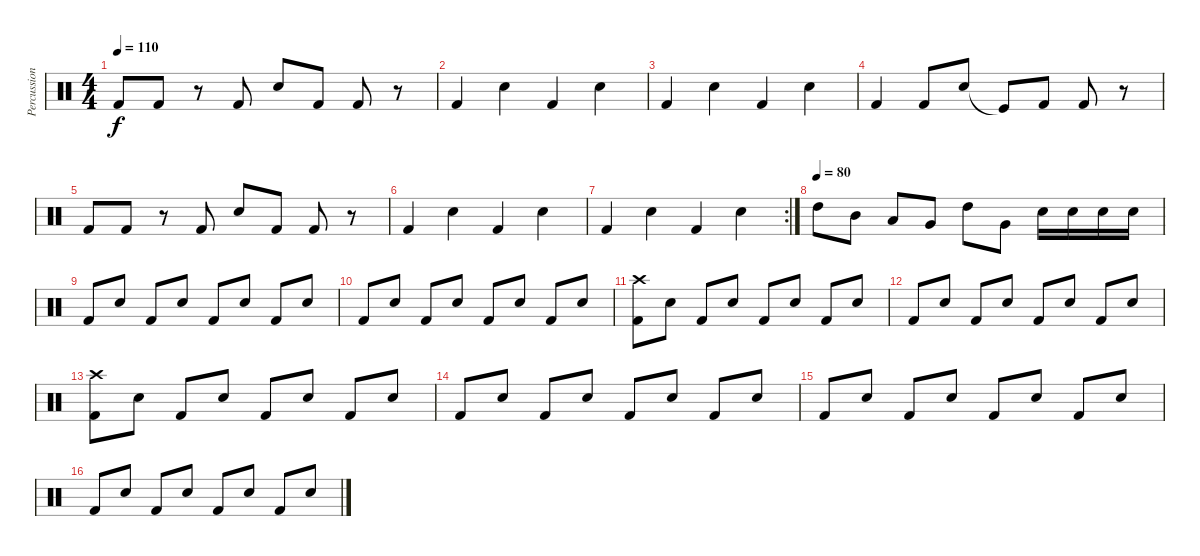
\track ("Percussion" "Percussion") {instrument percussion}
\staff {score}
\articulation defaults
\ts (4 4)
\tempo 110
\clef neutral
\ks c "Kick (hit) 2".8{dy f} "Kick (hit) 2".8
r.8 "Kick (hit) 2".8 "Electric Snare (hit)".8 "Kick (hit) 2".8 "Kick (hit) 2".8 r.8 |
"Kick (hit) 2".4 "Electric Snare (hit)".4 "Kick (hit) 2".4 "Electric Snare (hit)".4 |
"Kick (hit) 2".4 "Electric Snare (hit)".4 "Kick (hit) 2".4 "Electric Snare (hit)".4 |
"Kick (hit) 2".4 "Kick (hit) 2".8 "Electric Snare (hit)".8 "Kick (hit)"{t}.8 "Kick (hit) 2".8 "Kick (hit) 2".8 r.8 |
"Kick (hit) 2".8 "Kick (hit) 2".8 r.8 "Kick (hit) 2".8 "Electric Snare (hit)".8 "Kick (hit) 2".8 "Kick (hit) 2".8 r.8 |
"Kick (hit) 2".4 "Electric Snare (hit)".4 "Kick (hit) 2".4 "Electric Snare (hit)".4 |
\rc 2 "Kick (hit) 2".4 "Electric Snare (hit)".4 "Kick (hit) 2".4 "Electric Snare (hit)".4
|
\tempo (80)
"High Tom (hit)".8 "Mid Tom (hit)".8 "Low Tom (hit)".8 "Very Low Tom (hit)".8 "High Tom (hit)".8 "Very Low Tom (hit)".8 "Electric Snare (hit)".16 "Electric Snare (hit)".16 "Electric Snare (hit)".16 "Electric Snare (hit)".16 |
"Kick (hit) 2".8 "Electric Snare (hit)".8 "Kick (hit) 2".8 "Electric Snare (hit)".8 "Kick (hit) 2".8 "Electric Snare (hit)".8 "Kick (hit) 2".8 "Electric Snare (hit)".8 |
"Kick (hit) 2".8 "Electric Snare (hit)".8 "Kick (hit) 2".8 "Electric Snare (hit)".8 "Kick (hit) 2".8 "Electric Snare (hit)".8 "Kick (hit) 2".8 "Electric Snare (hit)".8 |
("Crash high (hit)" "Kick (hit) 2").8 "Electric Snare (hit)".8 "Kick (hit) 2".8 "Electric Snare (hit)".8 "Kick (hit) 2".8 "Electric Snare (hit)".8 "Kick (hit) 2".8 "Electric Snare (hit)".8 |
"Kick (hit) 2".8 "Electric Snare (hit)".8 "Kick (hit) 2".8 "Electric Snare (hit)".8 "Kick (hit) 2".8 "Electric Snare (hit)".8 "Kick (hit) 2".8 "Electric Snare (hit)".8 |
("Crash high (hit)" "Kick (hit) 2").8 "Electric Snare (hit)".8 "Kick (hit) 2".8 "Electric Snare (hit)".8 "Kick (hit) 2".8 "Electric Snare (hit)".8 "Kick (hit) 2".8 "Electric Snare (hit)".8 |
"Kick (hit) 2".8 "Electric Snare (hit)".8 "Kick (hit) 2".8 "Electric Snare (hit)".8 "Kick (hit) 2".8 "Electric Snare (hit)".8 "Kick (hit) 2".8 "Electric Snare (hit)".8 |
"Kick (hit) 2".8 "Electric Snare (hit)".8 "Kick (hit) 2".8 "Electric Snare (hit)".8 "Kick (hit) 2".8 "Electric Snare (hit)".8 "Kick (hit) 2".8 "Electric Snare (hit)".8 |
"Kick (hit) 2".8 "Electric Snare (hit)".8 "Kick (hit) 2".8 "Electric Snare (hit)".8 "Kick (hit) 2".8 "Electric Snare (hit)".8 "Kick (hit) 2".8 "Electric Snare (hit)".8
